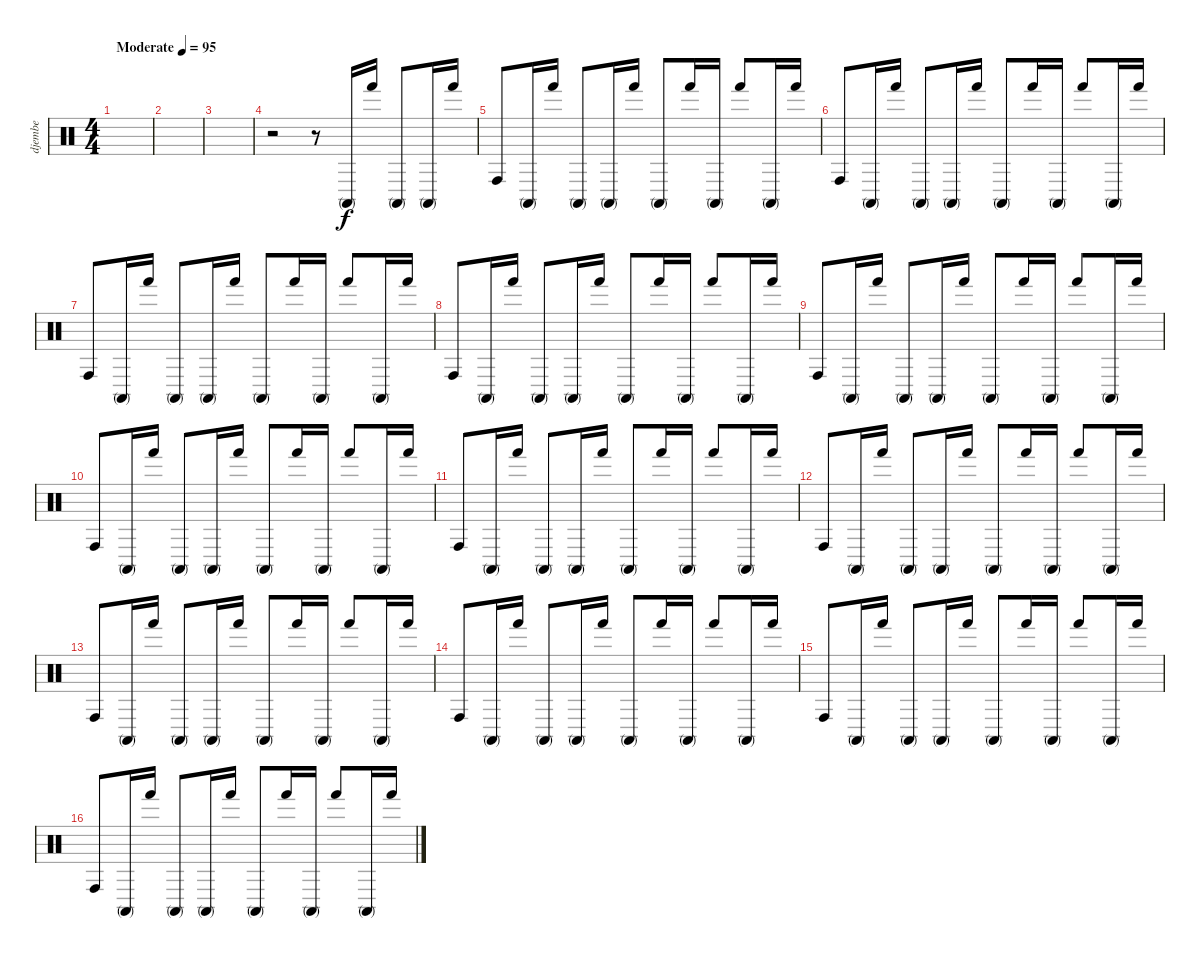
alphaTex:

\track ("djembe" "djembe") {instrument percussion}
\staff {score}
\articulation defaults
\ts (4 4)
\tempo (95 "Moderate")
\clef neutral
\ks c
|
|
|
r.2 r.8 "Conga high (mute)".16 "Hand (hit)".16 "Conga high (mute)".8 "Conga high (mute)".16 "Hand (hit)".16 |
"Conga high (hit)".8 "Conga high (mute)".16 "Hand (hit)".16 "Conga high (mute)".8 "Conga high (mute)".16 "Hand (hit)".16 "Conga high (mute)".8 "Hand (hit)".16 "Conga high (mute)".16 "Hand (hit)".8 "Conga high (mute)".16 "Hand (hit)".16 |
"Conga high (hit)".8 "Conga high (mute)".16 "Hand (hit)".16 "Conga high (mute)".8 "Conga high (mute)".16 "Hand (hit)".16 "Conga high (mute)".8 "Hand (hit)".16 "Conga high (mute)".16 "Hand (hit)".8 "Conga high (mute)".16 "Hand (hit)".16 |
"Conga high (hit)".8 "Conga high (mute)".16 "Hand (hit)".16 "Conga high (mute)".8 "Conga high (mute)".16 "Hand (hit)".16 "Conga high (mute)".8 "Hand (hit)".16 "Conga high (mute)".16 "Hand (hit)".8 "Conga high (mute)".16 "Hand (hit)".16 |
"Conga high (hit)".8 "Conga high (mute)".16 "Hand (hit)".16 "Conga high (mute)".8 "Conga high (mute)".16 "Hand (hit)".16 "Conga high (mute)".8 "Hand (hit)".16 "Conga high (mute)".16 "Hand (hit)".8 "Conga high (mute)".16 "Hand (hit)".16 |
"Conga high (hit)".8 "Conga high (mute)".16 "Hand (hit)".16 "Conga high (mute)".8 "Conga high (mute)".16 "Hand (hit)".16 "Conga high (mute)".8 "Hand (hit)".16 "Conga high (mute)".16 "Hand (hit)".8 "Conga high (mute)".16 "Hand (hit)".16 |
"Conga high (hit)".8 "Conga high (mute)".16 "Hand (hit)".16 "Conga high (mute)".8 "Conga high (mute)".16 "Hand (hit)".16 "Conga high (mute)".8 "Hand (hit)".16 "Conga high (mute)".16 "Hand (hit)".8 "Conga high (mute)".16 "Hand (hit)".16 |
"Conga high (hit)".8 "Conga high (mute)".16 "Hand (hit)".16 "Conga high (mute)".8 "Conga high (mute)".16 "Hand (hit)".16 "Conga high (mute)".8 "Hand (hit)".16 "Conga high (mute)".16 "Hand (hit)".8 "Conga high (mute)".16 "Hand (hit)".16 |
"Conga high (hit)".8 "Conga high (mute)".16 "Hand (hit)".16 "Conga high (mute)".8 "Conga high (mute)".16 "Hand (hit)".16 "Conga high (mute)".8 "Hand (hit)".16 "Conga high (mute)".16 "Hand (hit)".8 "Conga high (mute)".16 "Hand (hit)".16 |
"Conga high (hit)".8 "Conga high (mute)".16 "Hand (hit)".16 "Conga high (mute)".8 "Conga high (mute)".16 "Hand (hit)".16 "Conga high (mute)".8 "Hand (hit)".16 "Conga high (mute)".16 "Hand (hit)".8 "Conga high (mute)".16 "Hand (hit)".16 |
"Conga high (hit)".8 "Conga high (mute)".16 "Hand (hit)".16 "Conga high (mute)".8 "Conga high (mute)".16 "Hand (hit)".16 "Conga high (mute)".8 "Hand (hit)".16 "Conga high (mute)".16 "Hand (hit)".8 "Conga high (mute)".16 "Hand (hit)".16 |
"Conga high (hit)".8 "Conga high (mute)".16 "Hand (hit)".16 "Conga high (mute)".8 "Conga high (mute)".16 "Hand (hit)".16 "Conga high (mute)".8 "Hand (hit)".16 "Conga high (mute)".16 "Hand (hit)".8 "Conga high (mute)".16 "Hand (hit)".16 |
"Conga high (hit)".8 "Conga high (mute)".16 "Hand (hit)".16 "Conga high (mute)".8 "Conga high (mute)".16 "Hand (hit)".16 "Conga high (mute)".8 "Hand (hit)".16 "Conga high (mute)".16 "Hand (hit)".8 "Conga high (mute)".16 "Hand (hit)".16
